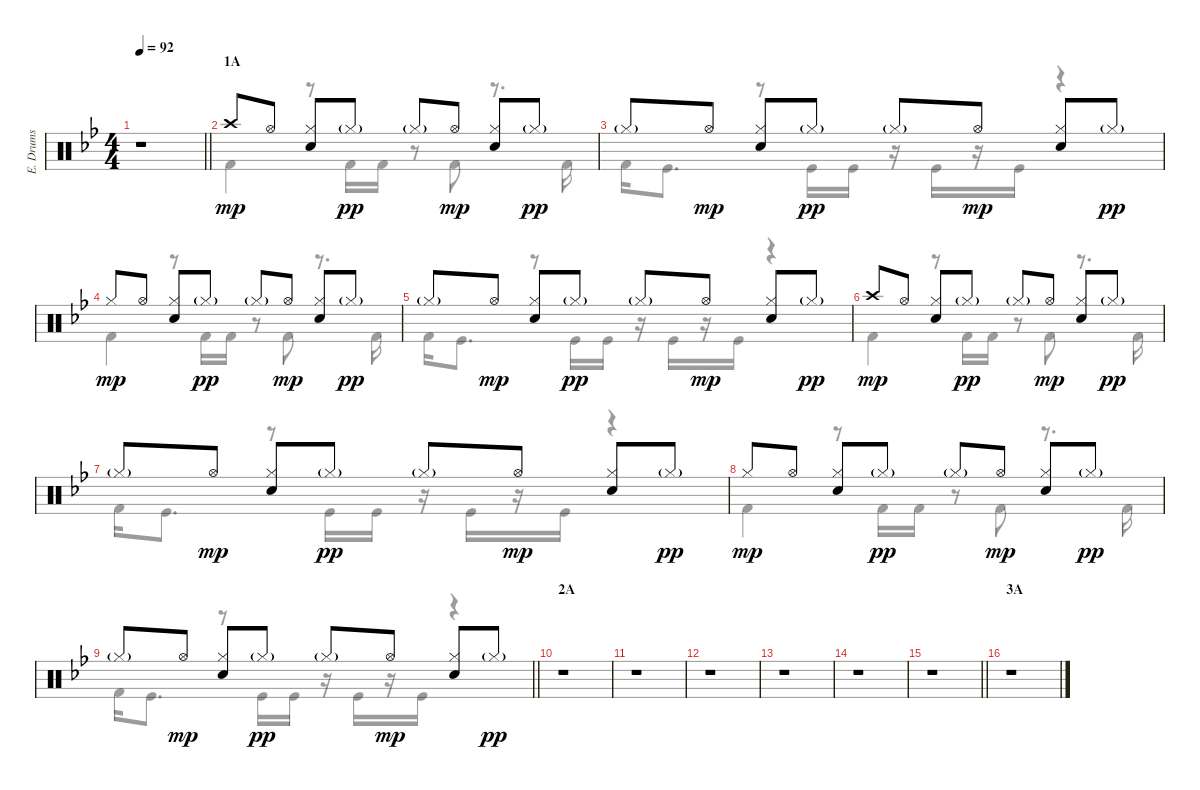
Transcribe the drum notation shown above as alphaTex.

\track ("E. Drums" "E. Drums") {instrument percussion}
\staff {score}
\articulation defaults
\voice
\ts (4 4)
\tempo 92
\clef neutral
\barLineRight lightlight
\ks bb
r.1{dy pp} |
\section ("" "1A")
"Crash high (hit)".8{dy mp} "Hi-Hat (open)".8 ("Hi-Hat (closed)" "Electric Snare (hit)").8 "Hi-Hat (closed)"{g}.8{dy pp} "Hi-Hat (closed)"{g}.8 "Hi-Hat (open)".8{dy mp} ("Hi-Hat (closed)" "Electric Snare (hit)").8 "Hi-Hat (closed)"{g}.8{dy pp} |
"Hi-Hat (closed)"{g}.8 "Hi-Hat (open)".8{dy mp} ("Hi-Hat (closed)" "Electric Snare (hit)").8 "Hi-Hat (closed)"{g}.8{dy pp} "Hi-Hat (closed)"{g}.8 "Hi-Hat (open)".8{dy mp} ("Hi-Hat (closed)" "Electric Snare (hit)").8 "Hi-Hat (closed)"{g}.8{dy pp} |
"Hi-Hat (closed)".8{dy mp} "Hi-Hat (open)".8 ("Hi-Hat (closed)" "Electric Snare (hit)").8 "Hi-Hat (closed)"{g}.8{dy pp} "Hi-Hat (closed)"{g}.8 "Hi-Hat (open)".8{dy mp} ("Hi-Hat (closed)" "Electric Snare (hit)").8 "Hi-Hat (closed)"{g}.8{dy pp} |
"Hi-Hat (closed)"{g}.8 "Hi-Hat (open)".8{dy mp} ("Hi-Hat (closed)" "Electric Snare (hit)").8 "Hi-Hat (closed)"{g}.8{dy pp} "Hi-Hat (closed)"{g}.8 "Hi-Hat (open)".8{dy mp} ("Hi-Hat (closed)" "Electric Snare (hit)").8 "Hi-Hat (closed)"{g}.8{dy pp} |
"Crash high (hit)".8{dy mp} "Hi-Hat (open)".8 ("Hi-Hat (closed)" "Electric Snare (hit)").8 "Hi-Hat (closed)"{g}.8{dy pp} "Hi-Hat (closed)"{g}.8 "Hi-Hat (open)".8{dy mp} ("Hi-Hat (closed)" "Electric Snare (hit)").8 "Hi-Hat (closed)"{g}.8{dy pp} |
"Hi-Hat (closed)"{g}.8 "Hi-Hat (open)".8{dy mp} ("Hi-Hat (closed)" "Electric Snare (hit)").8 "Hi-Hat (closed)"{g}.8{dy pp} "Hi-Hat (closed)"{g}.8 "Hi-Hat (open)".8{dy mp} ("Hi-Hat (closed)" "Electric Snare (hit)").8 "Hi-Hat (closed)"{g}.8{dy pp} |
"Hi-Hat (closed)".8{dy mp} "Hi-Hat (open)".8 ("Hi-Hat (closed)" "Electric Snare (hit)").8 "Hi-Hat (closed)"{g}.8{dy pp} "Hi-Hat (closed)"{g}.8 "Hi-Hat (open)".8{dy mp} ("Hi-Hat (closed)" "Electric Snare (hit)").8 "Hi-Hat (closed)"{g}.8{dy pp} |
\barLineRight lightlight "Hi-Hat (closed)"{g}.8 "Hi-Hat (open)".8{dy mp}
("Hi-Hat (closed)" "Electric Snare (hit)").8 "Hi-Hat (closed)"{g}.8{dy pp} "Hi-Hat (closed)"{g}.8 "Hi-Hat (open)".8{dy mp} ("Hi-Hat (closed)" "Electric Snare (hit)").8 "Hi-Hat (closed)"{g}.8{dy pp} |
\section ("" "2A")
r.1 |
r.1 |
r.1 |
r.1 |
r.1 |
\barLineRight lightlight
r.1 |
\section ("" "3A")
r.1
\voice
\clef neutral
\ottava regular
\simile none
\barLineRight lightlight
\ks bb
r.1{dy mp} |
"Kick (hit) 2".4 r.8 "Kick (hit) 2".16 "Kick (hit) 2".16 r.8 "Kick (hit) 2".8 r.8{d} "Kick (hit) 2".16 |
"Kick (hit) 2".16 "Kick (hit)".8{d} r.8 "Kick (hit)".16 "Kick (hit)".16 r.16 "Kick (hit)".16 r.16 "Kick (hit)".16 r.4 |
"Kick (hit) 2".4 r.8 "Kick (hit) 2".16 "Kick (hit) 2".16 r.8 "Kick (hit) 2".8 r.8{d} "Kick (hit) 2".16 |
"Kick (hit) 2".16 "Kick (hit)".8{d} r.8 "Kick (hit)".16 "Kick (hit)".16 r.16 "Kick (hit)".16 r.16 "Kick (hit)".16 r.4 |
"Kick (hit) 2".4 r.8 "Kick (hit) 2".16 "Kick (hit) 2".16 r.8 "Kick (hit) 2".8 r.8{d} "Kick (hit) 2".16 |
"Kick (hit) 2".16 "Kick (hit)".8{d} r.8 "Kick (hit)".16 "Kick (hit)".16 r.16 "Kick (hit)".16 r.16 "Kick (hit)".16 r.4 |
"Kick (hit) 2".4 r.8 "Kick (hit) 2".16 "Kick (hit) 2".16 r.8 "Kick (hit) 2".8 r.8{d} "Kick (hit) 2".16 |
\barLineRight lightlight "Kick (hit) 2".16 "Kick (hit)".8{d}
r.8 "Kick (hit)".16 "Kick (hit)".16 r.16 "Kick (hit)".16 r.16 "Kick (hit)".16 r.4 |
r.1 |
r.1 |
r.1 |
r.1 |
r.1 |
\barLineRight lightlight
r.1 |
r.1
